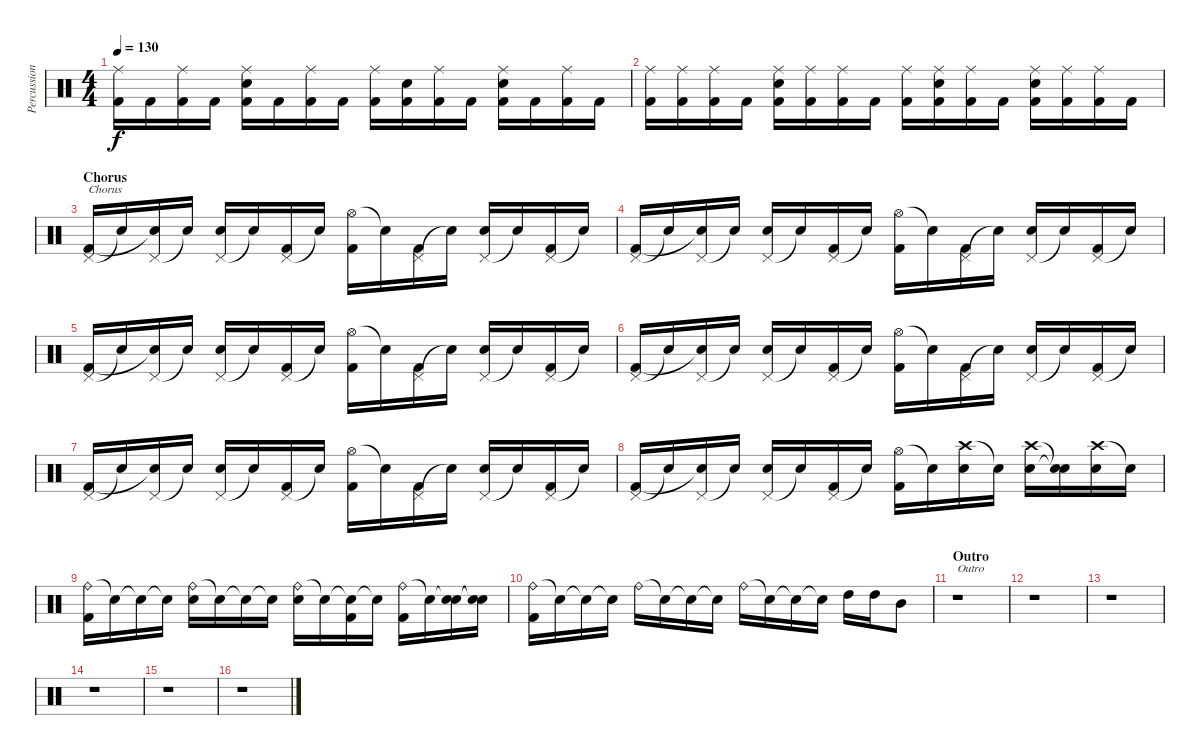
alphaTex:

\track ("Percussion" "Percussion") {instrument percussion}
\staff {score}
\articulation defaults
\ts (4 4)
\tempo 130
\clef neutral
\ks c
("Ride (middle)" "Kick (hit) 2").16{dy f} "Kick (hit) 2".16 ("Ride (middle)" "Kick (hit) 2").16 "Kick (hit) 2".16 ("Ride (middle)" "Electric Snare (hit)" "Kick (hit) 2").16 "Kick (hit) 2".16 ("Ride (middle)" "Kick (hit) 2").16 "Kick (hit) 2".16 ("Ride (middle)" "Kick (hit) 2").16 ("Electric Snare (hit)" "Kick (hit) 2").16 ("Ride (middle)" "Kick (hit) 2").16 "Kick (hit) 2".16 ("Ride (middle)" "Electric Snare (hit)" "Kick (hit) 2").16 "Kick (hit) 2".16 ("Ride (middle)" "Kick (hit) 2").16 "Kick (hit) 2".16 |
("Ride (middle)" "Kick (hit) 2").16 ("Ride (middle)" "Kick (hit) 2").16 ("Ride (middle)" "Kick (hit) 2").16 "Kick (hit) 2".16 ("Ride (middle)" "Electric Snare (hit)" "Kick (hit) 2").16 ("Ride (middle)" "Kick (hit) 2").16 ("Ride (middle)" "Kick (hit) 2").16 "Kick (hit) 2".16 ("Ride (middle)" "Kick (hit) 2").16 ("Ride (middle)" "Electric Snare (hit)" "Kick (hit) 2").16 ("Ride (middle)" "Kick (hit) 2").16 "Kick (hit) 2".16 ("Ride (middle)" "Electric Snare (hit)" "Kick (hit) 2").16 ("Ride (middle)" "Kick (hit) 2").16 ("Ride (middle)" "Kick (hit) 2").16 "Kick (hit) 2".16 |
\section ("" "Chorus")
("Pedal Hi-Hat (hit)" "Kick (hit) 2").16{txt "Chorus"} "Snare (hit)"{t}.16 ("Pedal Hi-Hat (hit)" "Snare (hit)"{t}).16 "Snare (hit)"{t}.16 ("Pedal Hi-Hat (hit)" "Electric Snare (hit)").16 "Snare (hit)"{t}.16 ("Pedal Hi-Hat (hit)" "Kick (hit) 2").16 "Snare (hit)"{t}.16 ("Hi-Hat (open)" "Kick (hit) 2").16 "Snare (hit)"{t}.16 ("Pedal Hi-Hat (hit)" "Kick (hit) 2").16 "Snare (hit)"{t}.16 ("Pedal Hi-Hat (hit)" "Electric Snare (hit)").16 "Snare (hit)"{t}.16 ("Pedal Hi-Hat (hit)" "Kick (hit) 2").16 "Snare (hit)"{t}.16 |
("Pedal Hi-Hat (hit)" "Kick (hit) 2").16 "Snare (hit)"{t}.16 ("Pedal Hi-Hat (hit)" "Snare (hit)"{t}).16 "Snare (hit)"{t}.16 ("Pedal Hi-Hat (hit)" "Electric Snare (hit)").16 "Snare (hit)"{t}.16 ("Pedal Hi-Hat (hit)" "Kick (hit) 2").16 "Snare (hit)"{t}.16 ("Hi-Hat (open)" "Kick (hit) 2").16 "Snare (hit)"{t}.16 ("Pedal Hi-Hat (hit)" "Kick (hit) 2").16 "Snare (hit)"{t}.16 ("Pedal Hi-Hat (hit)" "Electric Snare (hit)").16 "Snare (hit)"{t}.16 ("Pedal Hi-Hat (hit)" "Kick (hit) 2").16 "Snare (hit)"{t}.16 |
("Pedal Hi-Hat (hit)" "Kick (hit) 2").16 "Snare (hit)"{t}.16 ("Pedal Hi-Hat (hit)" "Snare (hit)"{t}).16 "Snare (hit)"{t}.16 ("Pedal Hi-Hat (hit)" "Electric Snare (hit)").16 "Snare (hit)"{t}.16 ("Pedal Hi-Hat (hit)" "Kick (hit) 2").16 "Snare (hit)"{t}.16 ("Hi-Hat (open)" "Kick (hit) 2").16 "Snare (hit)"{t}.16 ("Pedal Hi-Hat (hit)" "Kick (hit) 2").16 "Snare (hit)"{t}.16 ("Pedal Hi-Hat (hit)" "Electric Snare (hit)").16 "Snare (hit)"{t}.16 ("Pedal Hi-Hat (hit)" "Kick (hit) 2").16 "Snare (hit)"{t}.16 |
("Pedal Hi-Hat (hit)" "Kick (hit) 2").16 "Snare (hit)"{t}.16 ("Pedal Hi-Hat (hit)" "Snare (hit)"{t}).16 "Snare (hit)"{t}.16 ("Pedal Hi-Hat (hit)" "Electric Snare (hit)").16 "Snare (hit)"{t}.16 ("Pedal Hi-Hat (hit)" "Kick (hit) 2").16 "Snare (hit)"{t}.16 ("Hi-Hat (open)" "Kick (hit) 2").16 "Snare (hit)"{t}.16 ("Pedal Hi-Hat (hit)" "Kick (hit) 2").16 "Snare (hit)"{t}.16 ("Pedal Hi-Hat (hit)" "Electric Snare (hit)").16 "Snare (hit)"{t}.16 ("Pedal Hi-Hat (hit)" "Kick (hit) 2").16 "Snare (hit)"{t}.16 |
("Pedal Hi-Hat (hit)" "Kick (hit) 2").16 "Snare (hit)"{t}.16 ("Pedal Hi-Hat (hit)" "Snare (hit)"{t}).16 "Snare (hit)"{t}.16 ("Pedal Hi-Hat (hit)" "Electric Snare (hit)").16 "Snare (hit)"{t}.16 ("Pedal Hi-Hat (hit)" "Kick (hit) 2").16 "Snare (hit)"{t}.16 ("Hi-Hat (open)" "Kick (hit) 2").16 "Snare (hit)"{t}.16 ("Pedal Hi-Hat (hit)" "Kick (hit) 2").16 "Snare (hit)"{t}.16 ("Pedal Hi-Hat (hit)" "Electric Snare (hit)").16 "Snare (hit)"{t}.16 ("Pedal Hi-Hat (hit)" "Kick (hit) 2").16 "Snare (hit)"{t}.16 |
("Pedal Hi-Hat (hit)" "Kick (hit) 2").16 "Snare (hit)"{t}.16 ("Pedal Hi-Hat (hit)" "Snare (hit)"{t}).16 "Snare (hit)"{t}.16 ("Pedal Hi-Hat (hit)" "Electric Snare (hit)").16 "Snare (hit)"{t}.16 ("Pedal Hi-Hat (hit)" "Kick (hit) 2").16 "Snare (hit)"{t}.16 ("Hi-Hat (open)" "Kick (hit) 2").16 "Snare (hit)"{t}.16 ("Crash high (hit)" "Electric Snare (hit)").16 "Electric Snare (hit)"{t}.16 ("Crash high (hit)" "Electric Snare (hit)").16 ("Snare (hit)"{t} "Snare (hit)"{t}).16 ("Crash high (hit)" "Electric Snare (hit)").16 "Snare (hit)"{t}.16 |
("Ride (bell)" "Kick (hit) 2").16 "Snare (hit)"{t}.16 "Snare (hit)"{t}.16 "Snare (hit)"{t}.16 ("Ride (bell)" "Electric Snare (hit)").16 "Snare (hit)"{t}.16 "Snare (hit)"{t}.16 "Snare (hit)"{t}.16 ("Ride (bell)" "Electric Snare (hit)").16 "Snare (hit)"{t}.16 ("Snare (hit)"{t} "Kick (hit) 2").16 "Snare (hit)"{t}.16 ("Ride (bell)" "Kick (hit) 2").16 "Snare (hit)"{t}.16 ("Snare (hit)"{t} "Electric Snare (hit)").16 ("Snare (hit)"{t} "Snare (hit)"{t}).16 |
("Ride (bell)" "Kick (hit) 2").16 "Snare (hit)"{t}.16 "Snare (hit)"{t}.16 "Snare (hit)"{t}.16 "Ride (bell)".16 "Snare (hit)"{t}.16 "Snare (hit)"{t}.16 "Snare (hit)"{t}.16 "Ride (bell)".16 "Snare (hit)"{t}.16 "Snare (hit)"{t}.16 "Snare (hit)"{t}.16 "High Tom (hit)".16 "High Tom (hit)".16 "Mid Tom (hit)".8 |
\section ("" "Outro")
r.1{txt "Outro "} |
r.1 |
r.1 |
r.1 |
r.1 |
r.1
